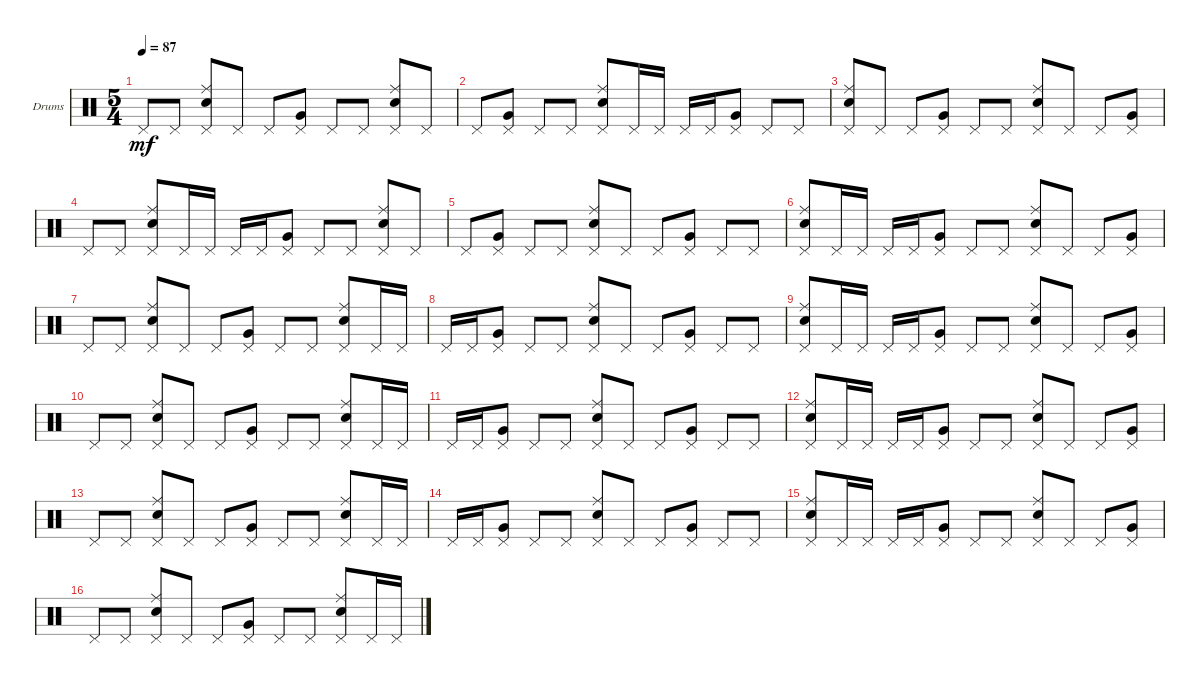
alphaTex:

\defaultSystemsLayout 4
\bracketExtendMode groupsimilarinstruments
\firstSystemTrackNameOrientation horizontal
\otherSystemsTrackNameOrientation horizontal
\track ("Drumkit" "Drums") {instrument percussion}
\staff {score}
\articulation defaults
\ts (5 4)
\tempo 87
\clef neutral
\ks c "Pedal Hi-Hat (hit)".8{dy mf} "Pedal Hi-Hat (hit)".8
("Pedal Hi-Hat (hit)" "Snare (hit) 2" "Ride (middle)").8 "Pedal Hi-Hat (hit)".8 "Pedal Hi-Hat (hit)".8 ("Pedal Hi-Hat (hit)" "Very Low Tom (hit)").8 "Pedal Hi-Hat (hit)".8 "Pedal Hi-Hat (hit)".8 ("Pedal Hi-Hat (hit)" "Snare (hit) 2" "Ride (middle)").8 "Pedal Hi-Hat (hit)".8 |
"Pedal Hi-Hat (hit)".8 ("Pedal Hi-Hat (hit)" "Very Low Tom (hit)").8 "Pedal Hi-Hat (hit)".8 "Pedal Hi-Hat (hit)".8 ("Pedal Hi-Hat (hit)" "Snare (hit) 2" "Ride (middle)").8 "Pedal Hi-Hat (hit)".16 "Pedal Hi-Hat (hit)".16 "Pedal Hi-Hat (hit)".16 "Pedal Hi-Hat (hit)".16 ("Pedal Hi-Hat (hit)" "Very Low Tom (hit)").8 "Pedal Hi-Hat (hit)".8 "Pedal Hi-Hat (hit)".8 |
("Pedal Hi-Hat (hit)" "Snare (hit) 2" "Ride (middle)").8 "Pedal Hi-Hat (hit)".8 "Pedal Hi-Hat (hit)".8 ("Pedal Hi-Hat (hit)" "Very Low Tom (hit)").8 "Pedal Hi-Hat (hit)".8 "Pedal Hi-Hat (hit)".8 ("Pedal Hi-Hat (hit)" "Snare (hit) 2" "Ride (middle)").8 "Pedal Hi-Hat (hit)".8 "Pedal Hi-Hat (hit)".8 ("Pedal Hi-Hat (hit)" "Very Low Tom (hit)").8 |
"Pedal Hi-Hat (hit)".8 "Pedal Hi-Hat (hit)".8 ("Pedal Hi-Hat (hit)" "Snare (hit) 2" "Ride (middle)").8 "Pedal Hi-Hat (hit)".16 "Pedal Hi-Hat (hit)".16 "Pedal Hi-Hat (hit)".16 "Pedal Hi-Hat (hit)".16 ("Pedal Hi-Hat (hit)" "Very Low Tom (hit)").8 "Pedal Hi-Hat (hit)".8 "Pedal Hi-Hat (hit)".8 ("Pedal Hi-Hat (hit)" "Snare (hit) 2" "Ride (middle)").8 "Pedal Hi-Hat (hit)".8 |
"Pedal Hi-Hat (hit)".8 ("Pedal Hi-Hat (hit)" "Very Low Tom (hit)").8 "Pedal Hi-Hat (hit)".8 "Pedal Hi-Hat (hit)".8 ("Pedal Hi-Hat (hit)" "Snare (hit) 2" "Ride (middle)").8 "Pedal Hi-Hat (hit)".8 "Pedal Hi-Hat (hit)".8 ("Pedal Hi-Hat (hit)" "Very Low Tom (hit)").8 "Pedal Hi-Hat (hit)".8 "Pedal Hi-Hat (hit)".8 |
("Pedal Hi-Hat (hit)" "Snare (hit) 2" "Ride (middle)").8 "Pedal Hi-Hat (hit)".16 "Pedal Hi-Hat (hit)".16 "Pedal Hi-Hat (hit)".16 "Pedal Hi-Hat (hit)".16 ("Pedal Hi-Hat (hit)" "Very Low Tom (hit)").8 "Pedal Hi-Hat (hit)".8 "Pedal Hi-Hat (hit)".8 ("Pedal Hi-Hat (hit)" "Snare (hit) 2" "Ride (middle)").8 "Pedal Hi-Hat (hit)".8 "Pedal Hi-Hat (hit)".8 ("Pedal Hi-Hat (hit)" "Very Low Tom (hit)").8 |
"Pedal Hi-Hat (hit)".8 "Pedal Hi-Hat (hit)".8 ("Pedal Hi-Hat (hit)" "Snare (hit) 2" "Ride (middle)").8 "Pedal Hi-Hat (hit)".8 "Pedal Hi-Hat (hit)".8 ("Pedal Hi-Hat (hit)" "Very Low Tom (hit)").8 "Pedal Hi-Hat (hit)".8 "Pedal Hi-Hat (hit)".8 ("Pedal Hi-Hat (hit)" "Snare (hit) 2" "Ride (middle)").8 "Pedal Hi-Hat (hit)".16 "Pedal Hi-Hat (hit)".16 |
"Pedal Hi-Hat (hit)".16 "Pedal Hi-Hat (hit)".16 ("Pedal Hi-Hat (hit)" "Very Low Tom (hit)").8 "Pedal Hi-Hat (hit)".8 "Pedal Hi-Hat (hit)".8 ("Pedal Hi-Hat (hit)" "Snare (hit) 2" "Ride (middle)").8 "Pedal Hi-Hat (hit)".8 "Pedal Hi-Hat (hit)".8 ("Pedal Hi-Hat (hit)" "Very Low Tom (hit)").8 "Pedal Hi-Hat (hit)".8 "Pedal Hi-Hat (hit)".8 |
("Pedal Hi-Hat (hit)" "Snare (hit) 2" "Ride (middle)").8 "Pedal Hi-Hat (hit)".16 "Pedal Hi-Hat (hit)".16 "Pedal Hi-Hat (hit)".16 "Pedal Hi-Hat (hit)".16 ("Pedal Hi-Hat (hit)" "Very Low Tom (hit)").8 "Pedal Hi-Hat (hit)".8 "Pedal Hi-Hat (hit)".8 ("Pedal Hi-Hat (hit)" "Snare (hit) 2" "Ride (middle)").8 "Pedal Hi-Hat (hit)".8 "Pedal Hi-Hat (hit)".8 ("Pedal Hi-Hat (hit)" "Very Low Tom (hit)").8 |
"Pedal Hi-Hat (hit)".8 "Pedal Hi-Hat (hit)".8 ("Pedal Hi-Hat (hit)" "Snare (hit) 2" "Ride (middle)").8 "Pedal Hi-Hat (hit)".8 "Pedal Hi-Hat (hit)".8 ("Pedal Hi-Hat (hit)" "Very Low Tom (hit)").8 "Pedal Hi-Hat (hit)".8 "Pedal Hi-Hat (hit)".8 ("Pedal Hi-Hat (hit)" "Snare (hit) 2" "Ride (middle)").8 "Pedal Hi-Hat (hit)".16 "Pedal Hi-Hat (hit)".16 |
"Pedal Hi-Hat (hit)".16 "Pedal Hi-Hat (hit)".16 ("Pedal Hi-Hat (hit)" "Very Low Tom (hit)").8 "Pedal Hi-Hat (hit)".8 "Pedal Hi-Hat (hit)".8 ("Pedal Hi-Hat (hit)" "Snare (hit) 2" "Ride (middle)").8 "Pedal Hi-Hat (hit)".8 "Pedal Hi-Hat (hit)".8 ("Pedal Hi-Hat (hit)" "Very Low Tom (hit)").8 "Pedal Hi-Hat (hit)".8 "Pedal Hi-Hat (hit)".8 |
("Pedal Hi-Hat (hit)" "Snare (hit) 2" "Ride (middle)").8 "Pedal Hi-Hat (hit)".16 "Pedal Hi-Hat (hit)".16 "Pedal Hi-Hat (hit)".16 "Pedal Hi-Hat (hit)".16 ("Pedal Hi-Hat (hit)" "Very Low Tom (hit)").8 "Pedal Hi-Hat (hit)".8 "Pedal Hi-Hat (hit)".8 ("Pedal Hi-Hat (hit)" "Snare (hit) 2" "Ride (middle)").8 "Pedal Hi-Hat (hit)".8 "Pedal Hi-Hat (hit)".8 ("Pedal Hi-Hat (hit)" "Very Low Tom (hit)").8 |
"Pedal Hi-Hat (hit)".8 "Pedal Hi-Hat (hit)".8 ("Pedal Hi-Hat (hit)" "Snare (hit) 2" "Ride (middle)").8 "Pedal Hi-Hat (hit)".8 "Pedal Hi-Hat (hit)".8 ("Pedal Hi-Hat (hit)" "Very Low Tom (hit)").8 "Pedal Hi-Hat (hit)".8 "Pedal Hi-Hat (hit)".8 ("Pedal Hi-Hat (hit)" "Snare (hit) 2" "Ride (middle)").8 "Pedal Hi-Hat (hit)".16 "Pedal Hi-Hat (hit)".16 |
"Pedal Hi-Hat (hit)".16 "Pedal Hi-Hat (hit)".16 ("Pedal Hi-Hat (hit)" "Very Low Tom (hit)").8 "Pedal Hi-Hat (hit)".8 "Pedal Hi-Hat (hit)".8 ("Pedal Hi-Hat (hit)" "Snare (hit) 2" "Ride (middle)").8 "Pedal Hi-Hat (hit)".8 "Pedal Hi-Hat (hit)".8 ("Pedal Hi-Hat (hit)" "Very Low Tom (hit)").8 "Pedal Hi-Hat (hit)".8 "Pedal Hi-Hat (hit)".8 |
("Pedal Hi-Hat (hit)" "Snare (hit) 2" "Ride (middle)").8 "Pedal Hi-Hat (hit)".16 "Pedal Hi-Hat (hit)".16 "Pedal Hi-Hat (hit)".16 "Pedal Hi-Hat (hit)".16 ("Pedal Hi-Hat (hit)" "Very Low Tom (hit)").8 "Pedal Hi-Hat (hit)".8 "Pedal Hi-Hat (hit)".8 ("Pedal Hi-Hat (hit)" "Snare (hit) 2" "Ride (middle)").8 "Pedal Hi-Hat (hit)".8 "Pedal Hi-Hat (hit)".8 ("Pedal Hi-Hat (hit)" "Very Low Tom (hit)").8 |
"Pedal Hi-Hat (hit)".8 "Pedal Hi-Hat (hit)".8 ("Pedal Hi-Hat (hit)" "Snare (hit) 2" "Ride (middle)").8 "Pedal Hi-Hat (hit)".8 "Pedal Hi-Hat (hit)".8 ("Pedal Hi-Hat (hit)" "Very Low Tom (hit)").8 "Pedal Hi-Hat (hit)".8 "Pedal Hi-Hat (hit)".8 ("Pedal Hi-Hat (hit)" "Snare (hit) 2" "Ride (middle)").8 "Pedal Hi-Hat (hit)".16 "Pedal Hi-Hat (hit)".16
